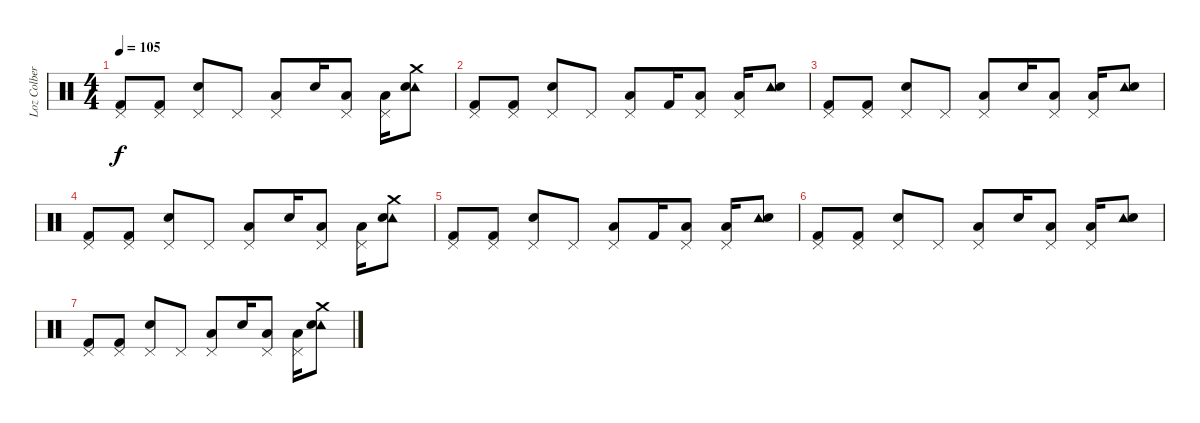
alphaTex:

\track ("Loz Colbert" "Loz Colber") {instrument percussion}
\staff {score}
\articulation defaults
\ts (4 4)
\tempo 105
\clef neutral
\ks c
("Pedal Hi-Hat (hit)" "Kick (hit) 2").8{dy f} ("Pedal Hi-Hat (hit)" "Kick (hit) 2").8 ("Pedal Hi-Hat (hit)" "Snare (hit) 2").8 "Pedal Hi-Hat (hit)".8 ("Pedal Hi-Hat (hit)" "Low Tom (hit)").8 "Snare (hit) 2".16 ("Pedal Hi-Hat (hit)" "Low Tom (hit)").8 ("Pedal Hi-Hat (hit)" "Low Tom (hit)").16 ("Tambourine (hit)" "Crash medium (hit)" "Snare (hit) 2").8 |
("Pedal Hi-Hat (hit)" "Kick (hit) 2").8 ("Pedal Hi-Hat (hit)" "Kick (hit) 2").8 ("Pedal Hi-Hat (hit)" "Snare (hit) 2").8 "Pedal Hi-Hat (hit)".8 ("Pedal Hi-Hat (hit)" "Low Tom (hit)").8 "Kick (hit) 2".16 ("Pedal Hi-Hat (hit)" "Low Tom (hit)").8 ("Pedal Hi-Hat (hit)" "Low Tom (hit)").16 ("Tambourine (hit)" "Snare (hit) 2").8 |
("Pedal Hi-Hat (hit)" "Kick (hit) 2").8 ("Pedal Hi-Hat (hit)" "Kick (hit) 2").8 ("Pedal Hi-Hat (hit)" "Snare (hit) 2").8 "Pedal Hi-Hat (hit)".8 ("Pedal Hi-Hat (hit)" "Low Tom (hit)").8 "Snare (hit) 2".16 ("Pedal Hi-Hat (hit)" "Low Tom (hit)").8 ("Pedal Hi-Hat (hit)" "Low Tom (hit)").16 ("Tambourine (hit)" "Snare (hit) 2").8 |
("Pedal Hi-Hat (hit)" "Kick (hit) 2").8 ("Pedal Hi-Hat (hit)" "Kick (hit) 2").8 ("Pedal Hi-Hat (hit)" "Snare (hit) 2").8 "Pedal Hi-Hat (hit)".8 ("Pedal Hi-Hat (hit)" "Low Tom (hit)").8 "Snare (hit) 2".16 ("Pedal Hi-Hat (hit)" "Low Tom (hit)").8 ("Pedal Hi-Hat (hit)" "Low Tom (hit)").16 ("Tambourine (hit)" "Crash medium (hit)" "Snare (hit) 2").8 |
("Pedal Hi-Hat (hit)" "Kick (hit) 2").8 ("Pedal Hi-Hat (hit)" "Kick (hit) 2").8 ("Pedal Hi-Hat (hit)" "Snare (hit) 2").8 "Pedal Hi-Hat (hit)".8 ("Pedal Hi-Hat (hit)" "Low Tom (hit)").8 "Kick (hit) 2".16 ("Pedal Hi-Hat (hit)" "Low Tom (hit)").8 ("Pedal Hi-Hat (hit)" "Low Tom (hit)").16 ("Tambourine (hit)" "Snare (hit) 2").8 |
("Pedal Hi-Hat (hit)" "Kick (hit) 2").8 ("Pedal Hi-Hat (hit)" "Kick (hit) 2").8 ("Pedal Hi-Hat (hit)" "Snare (hit) 2").8 "Pedal Hi-Hat (hit)".8 ("Pedal Hi-Hat (hit)" "Low Tom (hit)").8 "Snare (hit) 2".16 ("Pedal Hi-Hat (hit)" "Low Tom (hit)").8 ("Pedal Hi-Hat (hit)" "Low Tom (hit)").16 ("Tambourine (hit)" "Snare (hit) 2").8 |
("Pedal Hi-Hat (hit)" "Kick (hit) 2").8 ("Pedal Hi-Hat (hit)" "Kick (hit) 2").8 ("Pedal Hi-Hat (hit)" "Snare (hit) 2").8 "Pedal Hi-Hat (hit)".8 ("Pedal Hi-Hat (hit)" "Low Tom (hit)").8 "Snare (hit) 2".16 ("Pedal Hi-Hat (hit)" "Low Tom (hit)").8 ("Pedal Hi-Hat (hit)" "Low Tom (hit)").16 ("Tambourine (hit)" "Crash medium (hit)" "Snare (hit) 2").8
